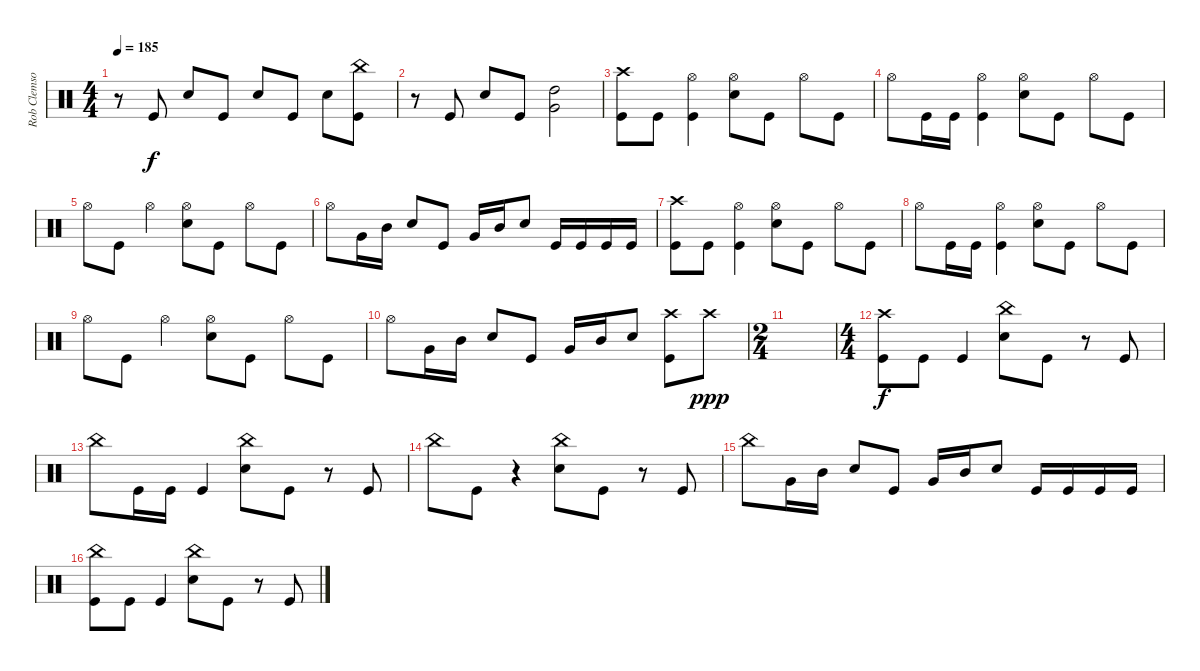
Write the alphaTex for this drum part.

\track ("Rob Clemson (Drums)" "Rob Clemso") {instrument percussion}
\staff {score}
\articulation defaults
\ts (4 4)
\tempo 185
\clef neutral
\ks c
r.8{dy f} "Kick (hit)".8 "Electric Snare (hit)".8 "Kick (hit)".8 "Electric Snare (hit)".8 "Kick (hit)".8 "Electric Snare (hit)".8 ("Kick (hit)" "China (hit)").8 |
r.8 "Kick (hit)".8 "Electric Snare (hit)".8 "Kick (hit)".8 ("Very Low Tom (hit)" "High Tom (hit)").2 |
("Kick (hit)" "Crash high (hit)").8 "Kick (hit)".8 ("Kick (hit)" "Hi-Hat (open)").4 ("Hi-Hat (open)" "Electric Snare (hit)").8 "Kick (hit)".8 "Hi-Hat (open)".8 "Kick (hit)".8 |
"Hi-Hat (open)".8 "Kick (hit)".16 "Kick (hit)".16 ("Kick (hit)" "Hi-Hat (open)").4 ("Hi-Hat (open)" "Electric Snare (hit)").8 "Kick (hit)".8 "Hi-Hat (open)".8 "Kick (hit)".8 |
"Hi-Hat (open)".8 "Kick (hit)".8 "Hi-Hat (open)".4 ("Hi-Hat (open)" "Electric Snare (hit)").8 "Kick (hit)".8 "Hi-Hat (open)".8 "Kick (hit)".8 |
"Hi-Hat (open)".8 "Very Low Tom (hit)".16 "Mid Tom (hit)".16 "Electric Snare (hit)".8 "Kick (hit)".8 "Very Low Tom (hit)".16 "Mid Tom (hit)".16 "Electric Snare (hit)".8 "Kick (hit)".16 "Kick (hit)".16 "Kick (hit)".16 "Kick (hit)".16 |
("Kick (hit)" "Crash high (hit)").8 "Kick (hit)".8 ("Kick (hit)" "Hi-Hat (open)").4 ("Hi-Hat (open)" "Electric Snare (hit)").8 "Kick (hit)".8 "Hi-Hat (open)".8 "Kick (hit)".8 |
"Hi-Hat (open)".8 "Kick (hit)".16 "Kick (hit)".16 ("Kick (hit)" "Hi-Hat (open)").4 ("Hi-Hat (open)" "Electric Snare (hit)").8 "Kick (hit)".8 "Hi-Hat (open)".8 "Kick (hit)".8 |
"Hi-Hat (open)".8 "Kick (hit)".8 "Hi-Hat (open)".4 ("Hi-Hat (open)" "Electric Snare (hit)").8 "Kick (hit)".8 "Hi-Hat (open)".8 "Kick (hit)".8 |
"Hi-Hat (open)".8 "Very Low Tom (hit)".16 "Mid Tom (hit)".16 "Electric Snare (hit)".8 "Kick (hit)".8 "Very Low Tom (hit)".16 "Mid Tom (hit)".16 "Electric Snare (hit)".8 ("Kick (hit)" "Crash high (hit)").8 "Crash high (hit)".8{dy ppp} |
\ts (2 4)
|
\ts (4 4)
("Kick (hit)" "Crash high (hit)").8{dy f} "Kick (hit)".8 "Kick (hit)".4 ("China (hit)" "Electric Snare (hit)").8 "Kick (hit)".8 r.8 "Kick (hit)".8 |
"China (hit)".8 "Kick (hit)".16 "Kick (hit)".16 "Kick (hit)".4 ("China (hit)" "Electric Snare (hit)").8 "Kick (hit)".8 r.8 "Kick (hit)".8 |
"China (hit)".8 "Kick (hit)".8 r.4 ("China (hit)" "Electric Snare (hit)").8 "Kick (hit)".8 r.8 "Kick (hit)".8 |
"China (hit)".8 "Very Low Tom (hit)".16 "Mid Tom (hit)".16 "Electric Snare (hit)".8 "Kick (hit)".8 "Very Low Tom (hit)".16 "Mid Tom (hit)".16 "Electric Snare (hit)".8 "Kick (hit)".16 "Kick (hit)".16 "Kick (hit)".16 "Kick (hit)".16 |
("Kick (hit)" "China (hit)").8 "Kick (hit)".8 "Kick (hit)".4 ("China (hit)" "Electric Snare (hit)").8 "Kick (hit)".8 r.8 "Kick (hit)".8
